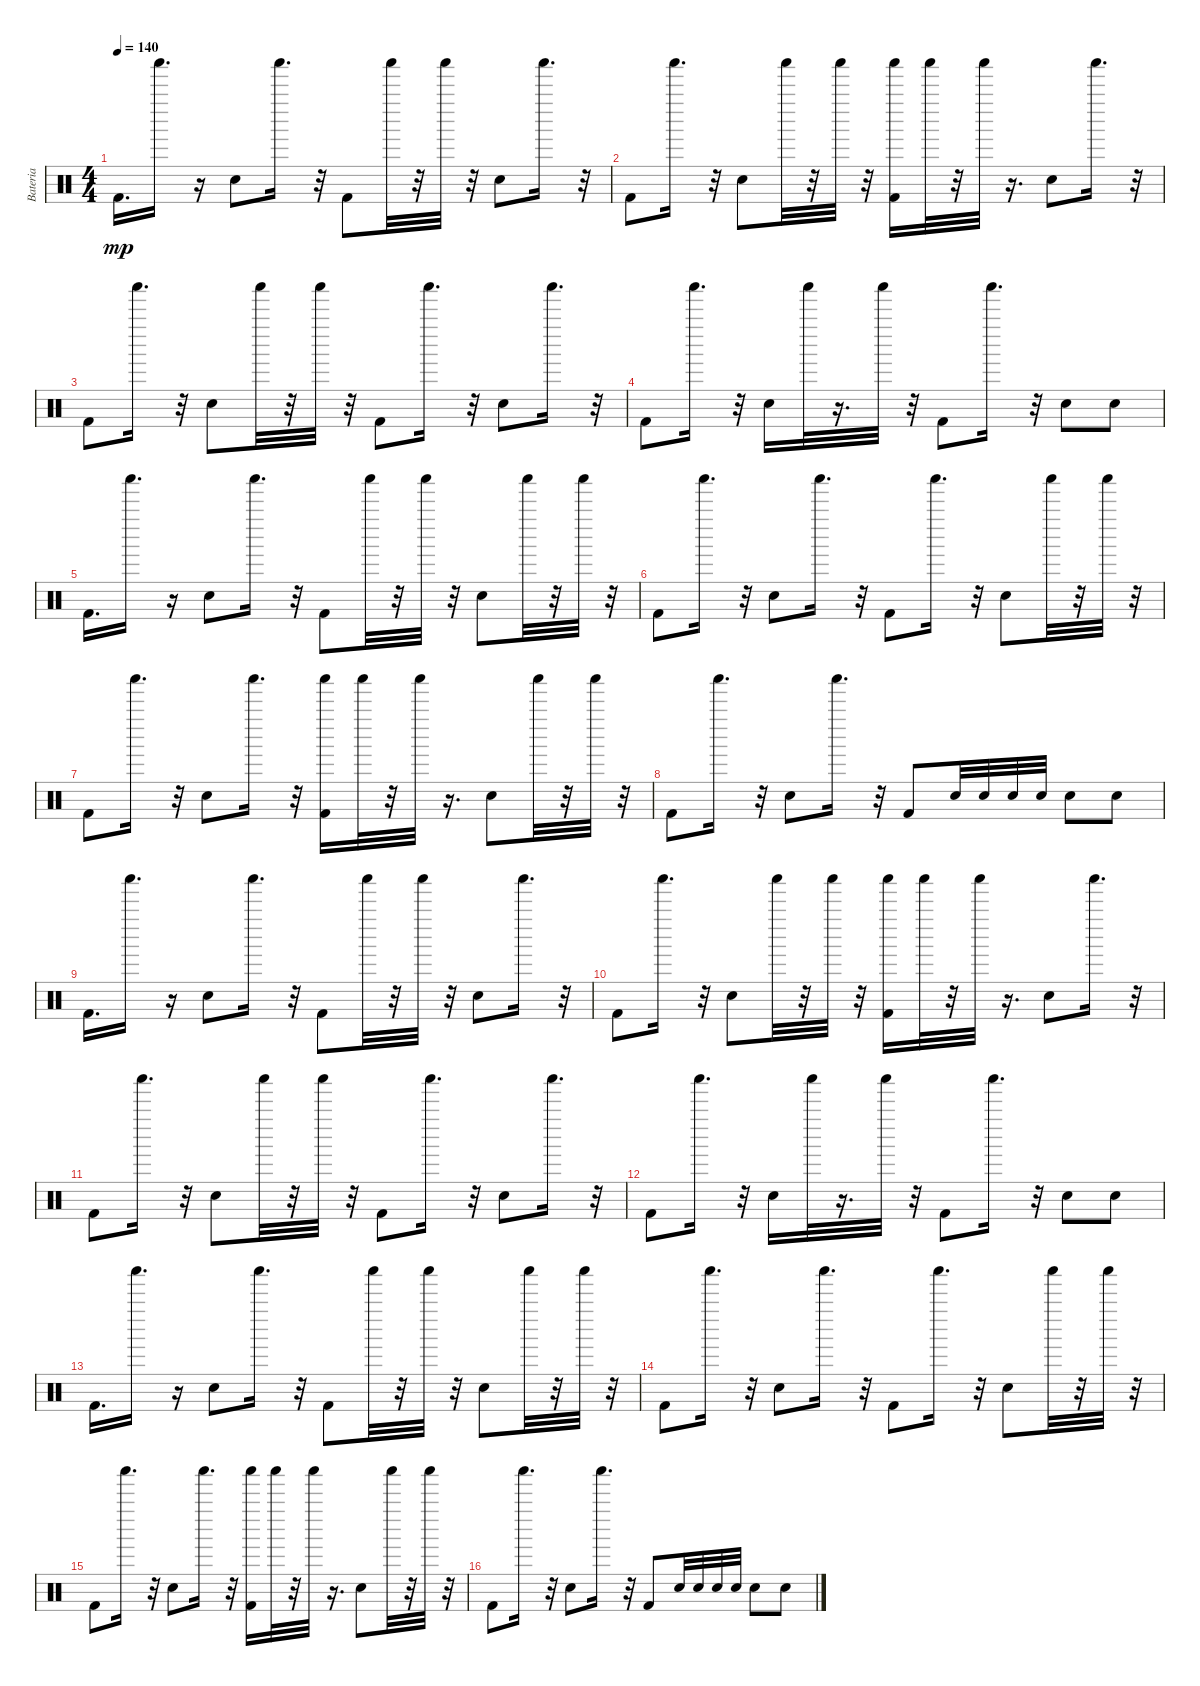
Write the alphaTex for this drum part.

\track ("Bateria" "Bateria") {instrument percussion}
\staff {score}
\articulation defaults
\ts (4 4)
\tempo 140
\clef neutral
\ks c "Kick (hit) 2".16{d dy mp} "Shaker (hit)".16{d}
r.16 "Electric Snare (hit)".8 "Shaker (hit)".16{d} r.32 "Kick (hit) 2".8 "Shaker (hit)".32 r.32 "Shaker (hit)".32 r.32 "Electric Snare (hit)".8 "Shaker (hit)".16{d} r.32 |
"Kick (hit) 2".8 "Shaker (hit)".16{d} r.32 "Electric Snare (hit)".8 "Shaker (hit)".32 r.32 "Shaker (hit)".32 r.32 ("Kick (hit) 2" "Shaker (hit)").16 "Shaker (hit)".32 r.32 "Shaker (hit)".32 r.16{d} "Electric Snare (hit)".8 "Shaker (hit)".16{d} r.32 |
"Kick (hit) 2".8 "Shaker (hit)".16{d} r.32 "Electric Snare (hit)".8 "Shaker (hit)".32 r.32 "Shaker (hit)".32 r.32 "Kick (hit) 2".8 "Shaker (hit)".16{d} r.32 "Electric Snare (hit)".8 "Shaker (hit)".16{d} r.32 |
"Kick (hit) 2".8 "Shaker (hit)".16{d} r.32 "Electric Snare (hit)".16 "Shaker (hit)".32 r.16{d} "Shaker (hit)".32 r.32 "Kick (hit) 2".8 "Shaker (hit)".16{d} r.32 "Electric Snare (hit)".8 "Electric Snare (hit)".8 |
"Kick (hit) 2".16{d} "Shaker (hit)".16{d} r.16 "Electric Snare (hit)".8 "Shaker (hit)".16{d} r.32 "Kick (hit) 2".8 "Shaker (hit)".32 r.32 "Shaker (hit)".32 r.32 "Electric Snare (hit)".8 "Shaker (hit)".32 r.32 "Shaker (hit)".32 r.32 |
"Kick (hit) 2".8 "Shaker (hit)".16{d} r.32 "Electric Snare (hit)".8 "Shaker (hit)".16{d} r.32 "Kick (hit) 2".8 "Shaker (hit)".16{d} r.32 "Electric Snare (hit)".8 "Shaker (hit)".32 r.32 "Shaker (hit)".32 r.32 |
"Kick (hit) 2".8 "Shaker (hit)".16{d} r.32 "Electric Snare (hit)".8 "Shaker (hit)".16{d} r.32 ("Kick (hit) 2" "Shaker (hit)").16 "Shaker (hit)".32 r.32 "Shaker (hit)".32 r.16{d} "Electric Snare (hit)".8 "Shaker (hit)".32 r.32 "Shaker (hit)".32 r.32 |
"Kick (hit) 2".8 "Shaker (hit)".16{d} r.32 "Electric Snare (hit)".8 "Shaker (hit)".16{d} r.32 "Kick (hit) 2".8 "Electric Snare (hit)".32 "Electric Snare (hit)".32 "Electric Snare (hit)".32 "Electric Snare (hit)".32 "Electric Snare (hit)".8 "Electric Snare (hit)".8 |
"Kick (hit) 2".16{d} "Shaker (hit)".16{d} r.16 "Electric Snare (hit)".8 "Shaker (hit)".16{d} r.32 "Kick (hit) 2".8 "Shaker (hit)".32 r.32 "Shaker (hit)".32 r.32 "Electric Snare (hit)".8 "Shaker (hit)".16{d} r.32 |
"Kick (hit) 2".8 "Shaker (hit)".16{d} r.32 "Electric Snare (hit)".8 "Shaker (hit)".32 r.32 "Shaker (hit)".32 r.32 ("Kick (hit) 2" "Shaker (hit)").16 "Shaker (hit)".32 r.32 "Shaker (hit)".32 r.16{d} "Electric Snare (hit)".8 "Shaker (hit)".16{d} r.32 |
"Kick (hit) 2".8 "Shaker (hit)".16{d} r.32 "Electric Snare (hit)".8 "Shaker (hit)".32 r.32 "Shaker (hit)".32 r.32 "Kick (hit) 2".8 "Shaker (hit)".16{d} r.32 "Electric Snare (hit)".8 "Shaker (hit)".16{d} r.32 |
"Kick (hit) 2".8 "Shaker (hit)".16{d} r.32 "Electric Snare (hit)".16 "Shaker (hit)".32 r.16{d} "Shaker (hit)".32 r.32 "Kick (hit) 2".8 "Shaker (hit)".16{d} r.32 "Electric Snare (hit)".8 "Electric Snare (hit)".8 |
"Kick (hit) 2".16{d} "Shaker (hit)".16{d} r.16 "Electric Snare (hit)".8 "Shaker (hit)".16{d} r.32 "Kick (hit) 2".8 "Shaker (hit)".32 r.32 "Shaker (hit)".32 r.32 "Electric Snare (hit)".8 "Shaker (hit)".32 r.32 "Shaker (hit)".32 r.32 |
"Kick (hit) 2".8 "Shaker (hit)".16{d} r.32 "Electric Snare (hit)".8 "Shaker (hit)".16{d} r.32 "Kick (hit) 2".8 "Shaker (hit)".16{d} r.32 "Electric Snare (hit)".8 "Shaker (hit)".32 r.32 "Shaker (hit)".32 r.32 |
"Kick (hit) 2".8 "Shaker (hit)".16{d} r.32 "Electric Snare (hit)".8 "Shaker (hit)".16{d} r.32 ("Kick (hit) 2" "Shaker (hit)").16 "Shaker (hit)".32 r.32 "Shaker (hit)".32 r.16{d} "Electric Snare (hit)".8 "Shaker (hit)".32 r.32 "Shaker (hit)".32 r.32 |
"Kick (hit) 2".8 "Shaker (hit)".16{d} r.32 "Electric Snare (hit)".8 "Shaker (hit)".16{d} r.32 "Kick (hit) 2".8 "Electric Snare (hit)".32 "Electric Snare (hit)".32 "Electric Snare (hit)".32 "Electric Snare (hit)".32 "Electric Snare (hit)".8 "Electric Snare (hit)".8
